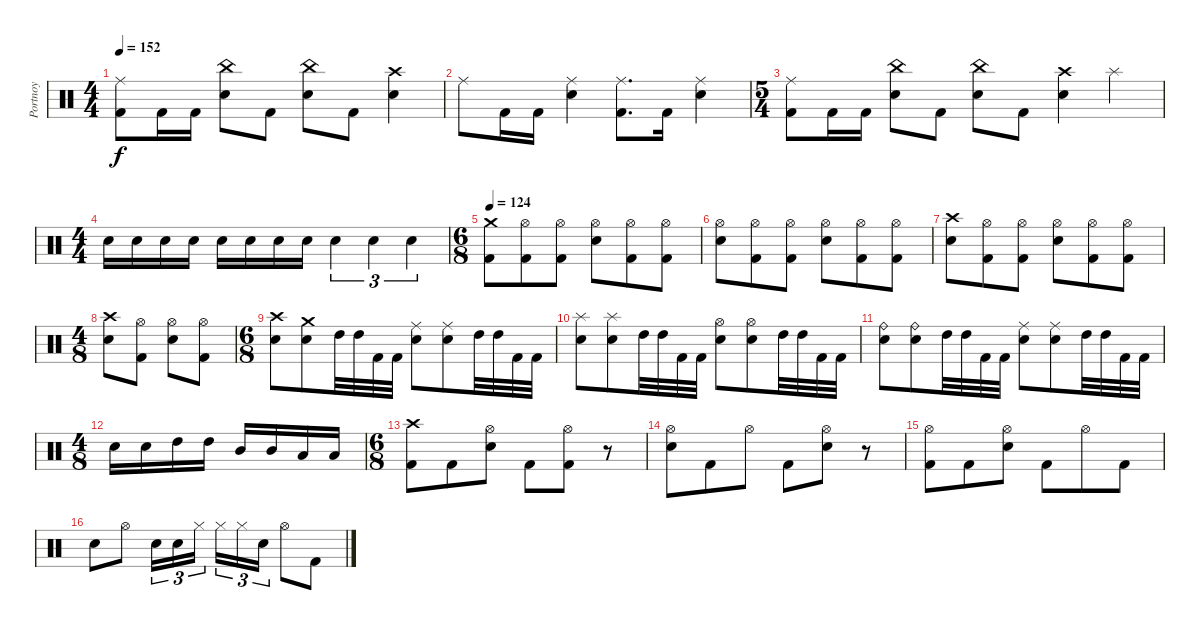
\track ("Portnoy" "Portnoy") {instrument percussion}
\staff {score}
\articulation defaults
\ts (4 4)
\tempo 152
\clef neutral
\ks c
("Ride (middle)" "Kick (hit) 2").8{dy f} "Kick (hit) 2".16 "Kick (hit) 2".16 ("China (hit)" "Electric Snare (hit)").8 "Kick (hit) 2".8 ("China (hit)" "Electric Snare (hit)").8 "Kick (hit) 2".8 ("Crash high (hit)" "Electric Snare (hit)").4 |
"Ride (middle)".8 "Kick (hit) 2".16 "Kick (hit) 2".16 ("Ride (middle)" "Electric Snare (hit)").4 ("Ride (middle)" "Kick (hit) 2").8{d} "Kick (hit) 2".16 ("Ride (middle)" "Electric Snare (hit)").4 |
\ts (5 4)
("Ride (middle)" "Kick (hit) 2").8 "Kick (hit) 2".16 "Kick (hit) 2".16 ("China (hit)" "Electric Snare (hit)").8 "Kick (hit) 2".8 ("China (hit)" "Electric Snare (hit)").8 "Kick (hit) 2".8 ("Crash high (hit)" "Electric Snare (hit)").4 "Splash (hit)".4 |
\ts (4 4)
"Electric Snare (hit)".16 "Electric Snare (hit)".16 "Electric Snare (hit)".16 "Electric Snare (hit)".16 "Electric Snare (hit)".16 "Electric Snare (hit)".16 "Electric Snare (hit)".16 "Electric Snare (hit)".16 "Electric Snare (hit)".4{tu (3 2)} "Electric Snare (hit)".4{tu (3 2)} "Electric Snare (hit)".4{tu (3 2)} |
\ts (6 8)
\tempo 124
("Crash medium (hit)" "Kick (hit) 2").8 ("Hi-Hat (open)" "Kick (hit) 2").8 ("Hi-Hat (open)" "Kick (hit) 2").8 ("Hi-Hat (open)" "Electric Snare (hit)").8 ("Hi-Hat (open)" "Kick (hit) 2").8 ("Hi-Hat (open)" "Kick (hit) 2").8 |
("Hi-Hat (open)" "Electric Snare (hit)").8 ("Hi-Hat (open)" "Kick (hit) 2").8 ("Hi-Hat (open)" "Kick (hit) 2").8 ("Hi-Hat (open)" "Electric Snare (hit)").8 ("Hi-Hat (open)" "Kick (hit) 2").8 ("Hi-Hat (open)" "Kick (hit) 2").8 |
("Crash high (hit)" "Electric Snare (hit)").8 ("Hi-Hat (open)" "Kick (hit) 2").8 ("Hi-Hat (open)" "Kick (hit) 2").8 ("Hi-Hat (open)" "Electric Snare (hit)").8 ("Hi-Hat (open)" "Kick (hit) 2").8 ("Hi-Hat (open)" "Kick (hit) 2").8 |
\ts (4 8)
("Crash high (hit)" "Electric Snare (hit)").8 ("Hi-Hat (open)" "Kick (hit) 2").8 ("Hi-Hat (open)" "Electric Snare (hit)").8 ("Hi-Hat (open)" "Kick (hit) 2").8 |
\ts (6 8)
("Crash high (hit)" "Electric Snare (hit)").8 ("Crash medium (hit)" "Electric Snare (hit)").8{beam merge} "High Tom (hit)".32 "High Tom (hit)".32 "Kick (hit) 2".32 "Kick (hit) 2".32 ("Ride (middle)" "Electric Snare (hit)").8 ("Ride (middle)" "Electric Snare (hit)").8{beam merge} "High Tom (hit)".32 "High Tom (hit)".32 "Kick (hit) 2".32 "Kick (hit) 2".32 |
("Splash (hit)" "Electric Snare (hit)").8 ("Splash (hit)" "Electric Snare (hit)").8{beam merge} "High Tom (hit)".32 "High Tom (hit)".32 "Kick (hit) 2".32 "Kick (hit) 2".32 ("Hi-Hat (open)" "Electric Snare (hit)").8 ("Hi-Hat (open)" "Electric Snare (hit)").8 "High Tom (hit)".32 "High Tom (hit)".32 "Kick (hit) 2".32 "Kick (hit) 2".32 |
("Ride (bell)" "Electric Snare (hit)").8 ("Ride (bell)" "Electric Snare (hit)").8{beam merge} "High Tom (hit)".32 "High Tom (hit)".32 "Kick (hit) 2".32 "Kick (hit) 2".32 ("Ride (middle)" "Electric Snare (hit)").8 ("Ride (middle)" "Electric Snare (hit)").8{beam merge} "High Tom (hit)".32 "High Tom (hit)".32 "Kick (hit) 2".32 "Kick (hit) 2".32 |
\ts (4 8)
"Electric Snare (hit)".16 "Electric Snare (hit)".16 "High Tom (hit)".16 "High Tom (hit)".16 "Mid Tom (hit)".16 "Mid Tom (hit)".16 "Low Tom (hit)".16 "Low Tom (hit)".16 |
\ts (6 8)
("Crash high (hit)" "Kick (hit) 2").8 "Kick (hit) 2".8 ("Hi-Hat (open)" "Electric Snare (hit)").8 "Kick (hit) 2".8 ("Hi-Hat (open)" "Kick (hit) 2").8 r.8 |
("Hi-Hat (open)" "Electric Snare (hit)").8 "Kick (hit) 2".8 "Hi-Hat (open)".8 "Kick (hit) 2".8 ("Hi-Hat (open)" "Electric Snare (hit)").8 r.8 |
("Hi-Hat (open)" "Kick (hit) 2").8 "Kick (hit) 2".8 ("Hi-Hat (open)" "Electric Snare (hit)").8 "Kick (hit) 2".8 "Hi-Hat (open)".8 "Kick (hit) 2".8 |
"Electric Snare (hit)".8 "Hi-Hat (open)".8 "Electric Snare (hit)".16{tu (3 2)} "Electric Snare (hit)".16{tu (3 2)} "Hi-Hat (closed)".16{tu (3 2)} "Hi-Hat (closed)".16{tu (3 2)} "Hi-Hat (closed)".16{tu (3 2)} "Electric Snare (hit)".16{tu (3 2)} "Hi-Hat (open)".8 "Kick (hit) 2".8
